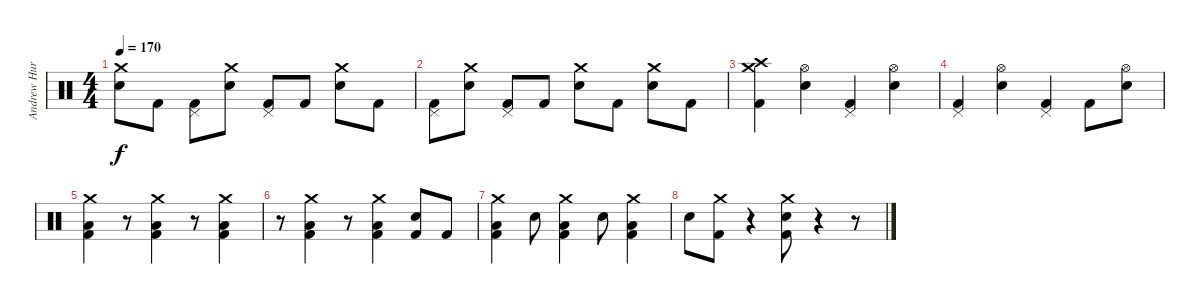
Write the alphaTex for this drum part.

\track ("Andrew Hurley (Drums)" "Andrew Hur") {instrument percussion}
\staff {score}
\articulation defaults
\ts (4 4)
\tempo 170
\clef neutral
\ks c
("Crash medium (hit)" "Electric Snare (hit)").8{dy f} "Kick (hit) 2".8 ("Pedal Hi-Hat (hit)" "Kick (hit) 2").8 ("Crash medium (hit)" "Electric Snare (hit)").8 ("Pedal Hi-Hat (hit)" "Kick (hit) 2").8 "Kick (hit) 2".8 ("Crash medium (hit)" "Electric Snare (hit)").8 "Kick (hit) 2".8 |
("Pedal Hi-Hat (hit)" "Kick (hit) 2").8 ("Crash medium (hit)" "Electric Snare (hit)").8 ("Pedal Hi-Hat (hit)" "Kick (hit) 2").8 "Kick (hit) 2".8 ("Crash medium (hit)" "Electric Snare (hit)").8 "Kick (hit) 2".8 ("Crash medium (hit)" "Electric Snare (hit)").8 "Kick (hit) 2".8 |
("Crash high (hit)" "Crash medium (hit)" "Kick (hit) 2").4 ("Hi-Hat (open)" "Electric Snare (hit)").4 ("Pedal Hi-Hat (hit)" "Kick (hit) 2").4 ("Hi-Hat (open)" "Electric Snare (hit)").4 |
("Pedal Hi-Hat (hit)" "Kick (hit) 2").4 ("Hi-Hat (open)" "Electric Snare (hit)").4 ("Pedal Hi-Hat (hit)" "Kick (hit) 2").4 "Kick (hit) 2".8 ("Hi-Hat (open)" "Electric Snare (hit)").8 |
("Crash medium (hit)" "Low Floor Tom (hit)" "Kick (hit) 2").4 r.8 ("Crash medium (hit)" "Low Floor Tom (hit)" "Kick (hit) 2").4 r.8 ("Crash medium (hit)" "Low Floor Tom (hit)" "Kick (hit) 2").4 |
r.8 ("Crash medium (hit)" "Low Floor Tom (hit)" "Kick (hit) 2").4 r.8 ("Crash medium (hit)" "Low Floor Tom (hit)" "Kick (hit) 2").4 ("Electric Snare (hit)" "Kick (hit) 2").8 "Kick (hit) 2".8 |
("Crash medium (hit)" "Low Floor Tom (hit)" "Kick (hit) 2").4 "Electric Snare (hit)".8 ("Crash medium (hit)" "Low Floor Tom (hit)" "Kick (hit) 2").4 "Electric Snare (hit)".8 ("Crash medium (hit)" "Low Floor Tom (hit)" "Kick (hit) 2").4 |
"Electric Snare (hit)".8 ("Crash medium (hit)" "Kick (hit) 2").8 r.4 ("Crash medium (hit)" "Electric Snare (hit)" "Kick (hit) 2").8 r.4 r.8
